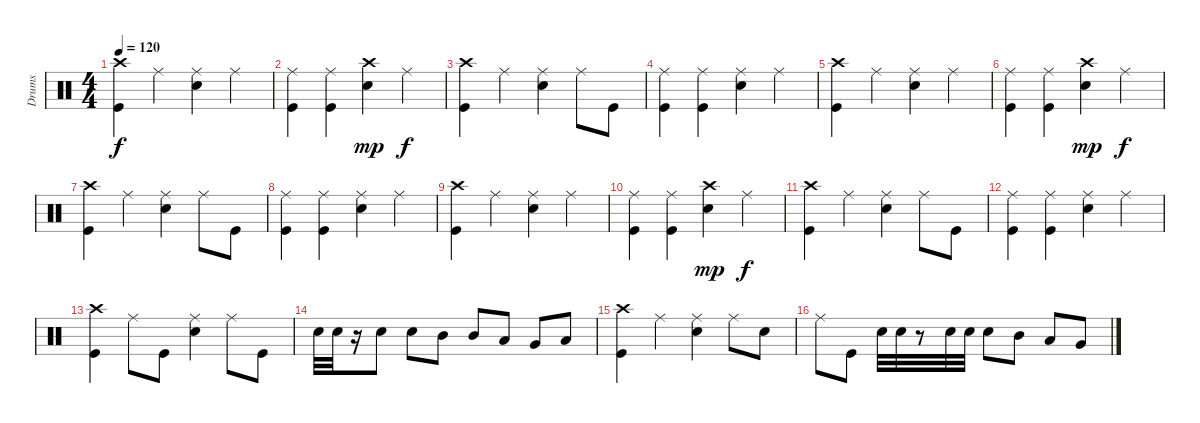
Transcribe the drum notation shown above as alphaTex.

\track ("Drums" "Drums") {instrument percussion}
\staff {score}
\articulation defaults
\ts (4 4)
\tempo 120
\clef neutral
\ks c
("Crash high (hit)" "Kick (hit)").4{dy f} "Ride (middle)".4 ("Ride (middle)" "Snare (hit) 2").4 "Ride (middle)".4 |
("Ride (middle)" "Kick (hit)").4 ("Ride (middle)" "Kick (hit)").4 ("Crash high (hit)" "Snare (hit) 2").4{dy mp} "Ride (middle)".4{dy f} |
("Crash high (hit)" "Kick (hit)").4 "Ride (middle)".4 ("Ride (middle)" "Snare (hit) 2").4 "Ride (middle)".8 "Kick (hit)".8 |
("Ride (middle)" "Kick (hit)").4 ("Ride (middle)" "Kick (hit)").4 ("Ride (middle)" "Snare (hit) 2").4 "Ride (middle)".4 |
("Crash high (hit)" "Kick (hit)").4 "Ride (middle)".4 ("Ride (middle)" "Snare (hit) 2").4 "Ride (middle)".4 |
("Ride (middle)" "Kick (hit)").4 ("Ride (middle)" "Kick (hit)").4 ("Crash high (hit)" "Snare (hit) 2").4{dy mp} "Ride (middle)".4{dy f} |
("Crash high (hit)" "Kick (hit)").4 "Ride (middle)".4 ("Ride (middle)" "Snare (hit) 2").4 "Ride (middle)".8 "Kick (hit)".8 |
("Ride (middle)" "Kick (hit)").4 ("Ride (middle)" "Kick (hit)").4 ("Ride (middle)" "Snare (hit) 2").4 "Ride (middle)".4 |
("Crash high (hit)" "Kick (hit)").4 "Ride (middle)".4 ("Ride (middle)" "Snare (hit) 2").4 "Ride (middle)".4 |
("Ride (middle)" "Kick (hit)").4 ("Ride (middle)" "Kick (hit)").4 ("Crash high (hit)" "Snare (hit) 2").4{dy mp} "Ride (middle)".4{dy f} |
("Crash high (hit)" "Kick (hit)").4 "Ride (middle)".4 ("Ride (middle)" "Snare (hit) 2").4 "Ride (middle)".8 "Kick (hit)".8 |
("Ride (middle)" "Kick (hit)").4 ("Ride (middle)" "Kick (hit)").4 ("Ride (middle)" "Snare (hit) 2").4 "Ride (middle)".4 |
("Crash high (hit)" "Kick (hit)").4 "Ride (middle)".8 "Kick (hit)".8 ("Ride (middle)" "Snare (hit) 2").4 "Ride (middle)".8 "Kick (hit)".8 |
"Snare (hit) 2".32 "Snare (hit) 2".32 r.16 "Snare (hit) 2".8 "Snare (hit) 2".8 "Mid Tom (hit)".8 "Mid Tom (hit)".8 "Low Tom (hit)".8 "Very Low Tom (hit)".8 "Low Floor Tom (hit)".8 |
("Crash high (hit)" "Kick (hit)").4 "Ride (middle)".4 ("Ride (middle)" "Snare (hit) 2").4 "Ride (middle)".8 "Snare (hit) 2".8 |
"Ride (middle)".8 "Kick (hit)".8 "Snare (hit) 2".32 "Snare (hit) 2".32 r.8 "Snare (hit) 2".32 "Snare (hit) 2".32 "Snare (hit) 2".8 "Mid Tom (hit)".8 "Low Tom (hit)".8 "Very Low Tom (hit)".8
